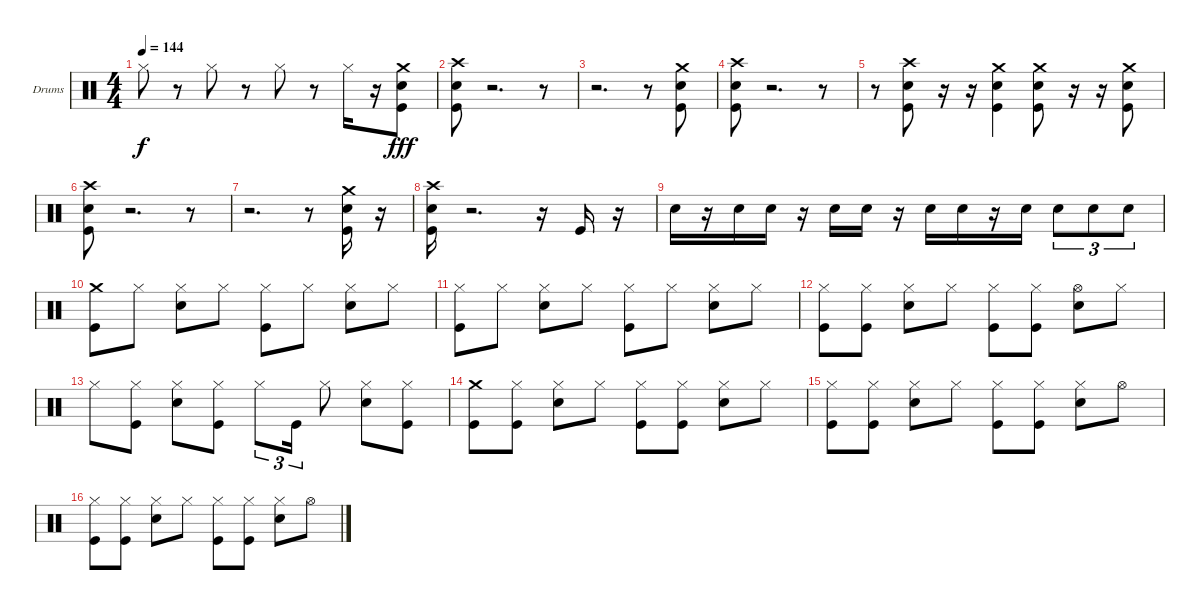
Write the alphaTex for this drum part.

\bracketExtendMode groupsimilarinstruments
\firstSystemTrackNameOrientation horizontal
\otherSystemsTrackNameOrientation horizontal
\track ("Drumkit" "Drums") {instrument percussion}
\staff {score}
\articulation defaults
\ts (4 4)
\beaming (8 2 2 2 2)
\tempo 144
\clef neutral
\ks c "Hi-Hat (closed)".8{dy f}
r.8 "Hi-Hat (closed)".8 r.8 "Hi-Hat (closed)".8 r.8 "Hi-Hat (closed)".16 r.16 ("Crash medium (hit)" "Snare (hit) 2" "Kick (hit)").8{dy fff} |
("Kick (hit)" "Snare (hit) 2" "Crash high (hit)").8 r.2{d} r.8 |
r.2{d} r.8 ("Kick (hit)" "Snare (hit) 2" "Crash medium (hit)").8 |
("Kick (hit)" "Snare (hit) 2" "Crash high (hit)").8 r.2{d} r.8 |
r.8 ("Kick (hit)" "Snare (hit) 2" "Crash high (hit)").8 r.16 r.16 ("Kick (hit)" "Snare (hit) 2" "Crash medium (hit)").4 ("Kick (hit)" "Snare (hit) 2" "Crash medium (hit)").8 r.16 r.16 ("Kick (hit)" "Snare (hit) 2" "Crash medium (hit)").8 |
("Kick (hit)" "Snare (hit) 2" "Crash high (hit)").8 r.2{d} r.8 |
r.2{d} r.8 ("Kick (hit)" "Snare (hit) 2" "Crash medium (hit)").16 r.16 |
("Kick (hit)" "Snare (hit) 2" "Crash high (hit)").16 r.2{d} r.16 "Kick (hit)".16 r.16 |
"Snare (hit) 2".16 r.16 "Snare (hit) 2".16 "Snare (hit) 2".16 r.16 "Snare (hit) 2".16 "Snare (hit) 2".16 r.16 "Snare (hit) 2".16 "Snare (hit) 2".16 r.16 "Snare (hit) 2".16 "Snare (hit) 2".8{tu (3 2)} "Snare (hit) 2".8{tu (3 2)} "Snare (hit) 2".8{tu (3 2)} |
("Kick (hit)" "Crash medium (hit)").8 "Hi-Hat (closed)".8 ("Snare (hit) 2" "Hi-Hat (closed)").8 "Hi-Hat (closed)".8 ("Kick (hit)" "Hi-Hat (closed)").8 "Hi-Hat (closed)".8 ("Snare (hit) 2" "Hi-Hat (closed)").8 "Hi-Hat (closed)".8 |
("Kick (hit)" "Hi-Hat (closed)").8 "Hi-Hat (closed)".8 ("Snare (hit) 2" "Hi-Hat (closed)").8 "Hi-Hat (closed)".8 ("Kick (hit)" "Hi-Hat (closed)").8 "Hi-Hat (closed)".8 ("Snare (hit) 2" "Hi-Hat (closed)").8 "Hi-Hat (closed)".8 |
("Kick (hit)" "Hi-Hat (closed)").8 ("Kick (hit)" "Hi-Hat (closed)").8 ("Snare (hit) 2" "Hi-Hat (closed)").8 "Hi-Hat (closed)".8 ("Kick (hit)" "Hi-Hat (closed)").8 ("Kick (hit)" "Hi-Hat (closed)").8 ("Snare (hit) 2" "Hi-Hat (open)").8 "Hi-Hat (closed)".8 |
"Hi-Hat (closed)".8 ("Kick (hit)" "Hi-Hat (closed)").8 ("Snare (hit) 2" "Hi-Hat (closed)").8 ("Hi-Hat (closed)" "Kick (hit)").8 "Hi-Hat (closed)".8{tu (3 2)} "Kick (hit)".16{tu (3 2)} "Hi-Hat (closed)".8 ("Snare (hit) 2" "Hi-Hat (closed)").8 ("Hi-Hat (closed)" "Kick (hit)").8 |
("Kick (hit)" "Crash medium (hit)").8 ("Kick (hit)" "Hi-Hat (closed)").8 ("Snare (hit) 2" "Hi-Hat (closed)").8 "Hi-Hat (closed)".8 ("Kick (hit)" "Hi-Hat (closed)").8 ("Kick (hit)" "Hi-Hat (closed)").8 ("Snare (hit) 2" "Hi-Hat (closed)").8 "Hi-Hat (closed)".8 |
("Kick (hit)" "Hi-Hat (closed)").8 ("Kick (hit)" "Hi-Hat (closed)").8 ("Snare (hit) 2" "Hi-Hat (closed)").8 "Hi-Hat (closed)".8 ("Kick (hit)" "Hi-Hat (closed)").8 ("Kick (hit)" "Hi-Hat (closed)").8 ("Snare (hit) 2" "Hi-Hat (closed)").8 "Hi-Hat (open)".8 |
("Hi-Hat (closed)" "Kick (hit)").8 ("Kick (hit)" "Hi-Hat (closed)").8 ("Snare (hit) 2" "Hi-Hat (closed)").8 "Hi-Hat (closed)".8 ("Kick (hit)" "Hi-Hat (closed)").8 ("Kick (hit)" "Hi-Hat (closed)").8 ("Snare (hit) 2" "Hi-Hat (closed)").8 "Hi-Hat (open)".8
